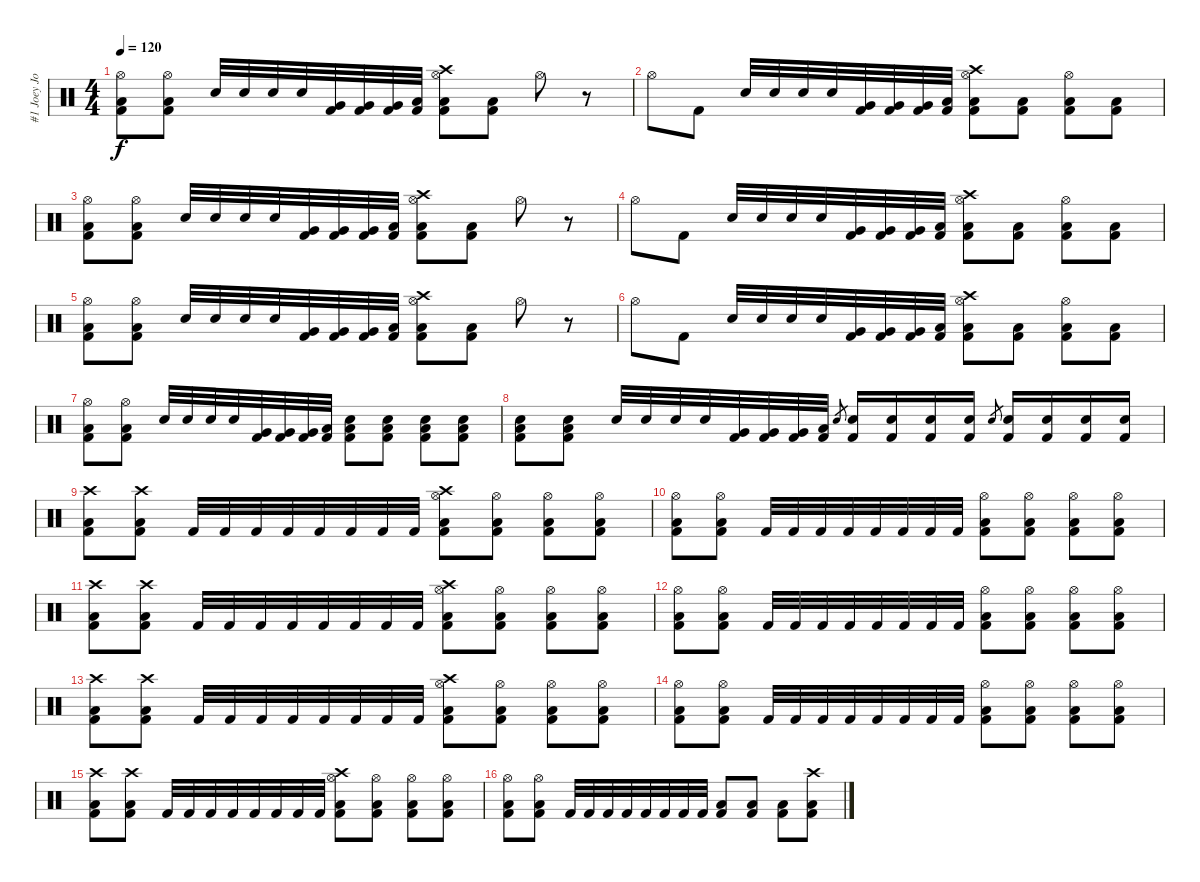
\track ("#1 Joey Jordison" "#1 Joey Jo") {instrument percussion}
\staff {score}
\articulation defaults
\ts (4 4)
\tempo 120
\clef neutral
\ks c
("Hi-Hat (open)" "Low Floor Tom (hit)" "Kick (hit) 2").8{dy f} ("Hi-Hat (open)" "Low Floor Tom (hit)" "Kick (hit) 2").8 "Electric Snare (hit)".32 "Electric Snare (hit)".32 "Electric Snare (hit)".32 "Electric Snare (hit)".32 ("Very Low Tom (hit)" "Kick (hit) 2").32 ("Very Low Tom (hit)" "Kick (hit) 2").32 ("Very Low Tom (hit)" "Kick (hit) 2").32 ("Low Floor Tom (hit)" "Kick (hit) 2").32 ("Crash high (hit)" "Hi-Hat (open)" "Low Floor Tom (hit)" "Kick (hit) 2").8 ("Low Floor Tom (hit)" "Kick (hit) 2").8 "Hi-Hat (open)".8 r.8 |
"Hi-Hat (open)".8 "Kick (hit) 2".8 "Electric Snare (hit)".32 "Electric Snare (hit)".32 "Electric Snare (hit)".32 "Electric Snare (hit)".32 ("Very Low Tom (hit)" "Kick (hit) 2").32 ("Very Low Tom (hit)" "Kick (hit) 2").32 ("Very Low Tom (hit)" "Kick (hit) 2").32 ("Low Floor Tom (hit)" "Kick (hit) 2").32 ("Hi-Hat (open)" "Crash high (hit)" "Low Floor Tom (hit)" "Kick (hit) 2").8 ("Low Floor Tom (hit)" "Kick (hit) 2").8 ("Hi-Hat (open)" "Low Floor Tom (hit)" "Kick (hit) 2").8 ("Low Floor Tom (hit)" "Kick (hit) 2").8 |
("Hi-Hat (open)" "Low Floor Tom (hit)" "Kick (hit) 2").8 ("Hi-Hat (open)" "Low Floor Tom (hit)" "Kick (hit) 2").8 "Electric Snare (hit)".32 "Electric Snare (hit)".32 "Electric Snare (hit)".32 "Electric Snare (hit)".32 ("Very Low Tom (hit)" "Kick (hit) 2").32 ("Very Low Tom (hit)" "Kick (hit) 2").32 ("Very Low Tom (hit)" "Kick (hit) 2").32 ("Low Floor Tom (hit)" "Kick (hit) 2").32 ("Hi-Hat (open)" "Crash high (hit)" "Low Floor Tom (hit)" "Kick (hit) 2").8 ("Low Floor Tom (hit)" "Kick (hit) 2").8 "Hi-Hat (open)".8 r.8 |
"Hi-Hat (open)".8 "Kick (hit) 2".8 "Electric Snare (hit)".32 "Electric Snare (hit)".32 "Electric Snare (hit)".32 "Electric Snare (hit)".32 ("Very Low Tom (hit)" "Kick (hit) 2").32 ("Very Low Tom (hit)" "Kick (hit) 2").32 ("Very Low Tom (hit)" "Kick (hit) 2").32 ("Low Floor Tom (hit)" "Kick (hit) 2").32 ("Hi-Hat (open)" "Crash high (hit)" "Low Floor Tom (hit)" "Kick (hit) 2").8 ("Low Floor Tom (hit)" "Kick (hit) 2").8 ("Hi-Hat (open)" "Low Floor Tom (hit)" "Kick (hit) 2").8 ("Low Floor Tom (hit)" "Kick (hit) 2").8 |
("Hi-Hat (open)" "Low Floor Tom (hit)" "Kick (hit) 2").8 ("Hi-Hat (open)" "Low Floor Tom (hit)" "Kick (hit) 2").8 "Electric Snare (hit)".32 "Electric Snare (hit)".32 "Electric Snare (hit)".32 "Electric Snare (hit)".32 ("Very Low Tom (hit)" "Kick (hit) 2").32 ("Very Low Tom (hit)" "Kick (hit) 2").32 ("Very Low Tom (hit)" "Kick (hit) 2").32 ("Low Floor Tom (hit)" "Kick (hit) 2").32 ("Hi-Hat (open)" "Crash high (hit)" "Low Floor Tom (hit)" "Kick (hit) 2").8 ("Low Floor Tom (hit)" "Kick (hit) 2").8 "Hi-Hat (open)".8 r.8 |
"Hi-Hat (open)".8 "Kick (hit) 2".8 "Electric Snare (hit)".32 "Electric Snare (hit)".32 "Electric Snare (hit)".32 "Electric Snare (hit)".32 ("Very Low Tom (hit)" "Kick (hit) 2").32 ("Very Low Tom (hit)" "Kick (hit) 2").32 ("Very Low Tom (hit)" "Kick (hit) 2").32 ("Low Floor Tom (hit)" "Kick (hit) 2").32 ("Hi-Hat (open)" "Crash high (hit)" "Low Floor Tom (hit)" "Kick (hit) 2").8 ("Low Floor Tom (hit)" "Kick (hit) 2").8 ("Hi-Hat (open)" "Low Floor Tom (hit)" "Kick (hit) 2").8 ("Low Floor Tom (hit)" "Kick (hit) 2").8 |
("Hi-Hat (open)" "Low Floor Tom (hit)" "Kick (hit) 2").8 ("Hi-Hat (open)" "Low Floor Tom (hit)" "Kick (hit) 2").8 "Electric Snare (hit)".32 "Electric Snare (hit)".32 "Electric Snare (hit)".32 "Electric Snare (hit)".32 ("Very Low Tom (hit)" "Kick (hit) 2").32 ("Very Low Tom (hit)" "Kick (hit) 2").32 ("Very Low Tom (hit)" "Kick (hit) 2").32 ("Low Floor Tom (hit)" "Kick (hit) 2").32 ("Low Floor Tom (hit)" "Electric Snare (hit)" "Kick (hit) 2").8 ("Low Floor Tom (hit)" "Electric Snare (hit)" "Kick (hit) 2").8 ("Low Floor Tom (hit)" "Electric Snare (hit)" "Kick (hit) 2").8 ("Low Floor Tom (hit)" "Electric Snare (hit)" "Kick (hit) 2").8 |
("Low Floor Tom (hit)" "Electric Snare (hit)" "Kick (hit) 2").8 ("Low Floor Tom (hit)" "Electric Snare (hit)" "Kick (hit) 2").8 "Electric Snare (hit)".32 "Electric Snare (hit)".32 "Electric Snare (hit)".32 "Electric Snare (hit)".32 ("Very Low Tom (hit)" "Kick (hit) 2").32 ("Very Low Tom (hit)" "Kick (hit) 2").32 ("Very Low Tom (hit)" "Kick (hit) 2").32 ("Low Floor Tom (hit)" "Kick (hit) 2").32 "Electric Snare (hit)".8{gr} ("Electric Snare (hit)" "Kick (hit) 2").16 ("Electric Snare (hit)" "Kick (hit) 2").16 ("Electric Snare (hit)" "Kick (hit) 2").16 ("Electric Snare (hit)" "Kick (hit) 2").16 "Electric Snare (hit)".8{gr} ("Electric Snare (hit)" "Kick (hit) 2").16 ("Electric Snare (hit)" "Kick (hit) 2").16 ("Electric Snare (hit)" "Kick (hit) 2").16 ("Electric Snare (hit)" "Kick (hit) 2").16 |
("Crash high (hit)" "Low Floor Tom (hit)" "Kick (hit) 2").8 ("Crash high (hit)" "Low Floor Tom (hit)" "Kick (hit) 2").8 "Kick (hit) 2".32 "Kick (hit) 2".32 "Kick (hit) 2".32 "Kick (hit) 2".32 "Kick (hit) 2".32 "Kick (hit) 2".32 "Kick (hit) 2".32 "Kick (hit) 2".32 ("Hi-Hat (open)" "Crash high (hit)" "Low Floor Tom (hit)" "Kick (hit) 2").8 ("Hi-Hat (open)" "Low Floor Tom (hit)" "Kick (hit) 2").8 ("Hi-Hat (open)" "Low Floor Tom (hit)" "Kick (hit) 2").8 ("Hi-Hat (open)" "Low Floor Tom (hit)" "Kick (hit) 2").8 |
("Hi-Hat (open)" "Low Floor Tom (hit)" "Kick (hit) 2").8 ("Hi-Hat (open)" "Low Floor Tom (hit)" "Kick (hit) 2").8 "Kick (hit) 2".32 "Kick (hit) 2".32 "Kick (hit) 2".32 "Kick (hit) 2".32 "Kick (hit) 2".32 "Kick (hit) 2".32 "Kick (hit) 2".32 "Kick (hit) 2".32 ("Hi-Hat (open)" "Low Floor Tom (hit)" "Kick (hit) 2").8 ("Hi-Hat (open)" "Low Floor Tom (hit)" "Kick (hit) 2").8 ("Hi-Hat (open)" "Low Floor Tom (hit)" "Kick (hit) 2").8 ("Hi-Hat (open)" "Low Floor Tom (hit)" "Kick (hit) 2").8 |
("Crash high (hit)" "Low Floor Tom (hit)" "Kick (hit) 2").8 ("Crash high (hit)" "Low Floor Tom (hit)" "Kick (hit) 2").8 "Kick (hit) 2".32 "Kick (hit) 2".32 "Kick (hit) 2".32 "Kick (hit) 2".32 "Kick (hit) 2".32 "Kick (hit) 2".32 "Kick (hit) 2".32 "Kick (hit) 2".32 ("Hi-Hat (open)" "Crash high (hit)" "Low Floor Tom (hit)" "Kick (hit) 2").8 ("Hi-Hat (open)" "Low Floor Tom (hit)" "Kick (hit) 2").8 ("Hi-Hat (open)" "Low Floor Tom (hit)" "Kick (hit) 2").8 ("Hi-Hat (open)" "Low Floor Tom (hit)" "Kick (hit) 2").8 |
("Hi-Hat (open)" "Low Floor Tom (hit)" "Kick (hit) 2").8 ("Hi-Hat (open)" "Low Floor Tom (hit)" "Kick (hit) 2").8 "Kick (hit) 2".32 "Kick (hit) 2".32 "Kick (hit) 2".32 "Kick (hit) 2".32 "Kick (hit) 2".32 "Kick (hit) 2".32 "Kick (hit) 2".32 "Kick (hit) 2".32 ("Hi-Hat (open)" "Low Floor Tom (hit)" "Kick (hit) 2").8 ("Hi-Hat (open)" "Low Floor Tom (hit)" "Kick (hit) 2").8 ("Hi-Hat (open)" "Low Floor Tom (hit)" "Kick (hit) 2").8 ("Hi-Hat (open)" "Low Floor Tom (hit)" "Kick (hit) 2").8 |
("Crash high (hit)" "Low Floor Tom (hit)" "Kick (hit) 2").8 ("Crash high (hit)" "Low Floor Tom (hit)" "Kick (hit) 2").8 "Kick (hit) 2".32 "Kick (hit) 2".32 "Kick (hit) 2".32 "Kick (hit) 2".32 "Kick (hit) 2".32 "Kick (hit) 2".32 "Kick (hit) 2".32 "Kick (hit) 2".32 ("Hi-Hat (open)" "Crash high (hit)" "Low Floor Tom (hit)" "Kick (hit) 2").8 ("Hi-Hat (open)" "Low Floor Tom (hit)" "Kick (hit) 2").8 ("Hi-Hat (open)" "Low Floor Tom (hit)" "Kick (hit) 2").8 ("Hi-Hat (open)" "Low Floor Tom (hit)" "Kick (hit) 2").8 |
("Hi-Hat (open)" "Low Floor Tom (hit)" "Kick (hit) 2").8 ("Hi-Hat (open)" "Low Floor Tom (hit)" "Kick (hit) 2").8 "Kick (hit) 2".32 "Kick (hit) 2".32 "Kick (hit) 2".32 "Kick (hit) 2".32 "Kick (hit) 2".32 "Kick (hit) 2".32 "Kick (hit) 2".32 "Kick (hit) 2".32 ("Hi-Hat (open)" "Low Floor Tom (hit)" "Kick (hit) 2").8 ("Hi-Hat (open)" "Low Floor Tom (hit)" "Kick (hit) 2").8 ("Hi-Hat (open)" "Low Floor Tom (hit)" "Kick (hit) 2").8 ("Hi-Hat (open)" "Low Floor Tom (hit)" "Kick (hit) 2").8 |
("Crash high (hit)" "Low Floor Tom (hit)" "Kick (hit) 2").8 ("Crash high (hit)" "Low Floor Tom (hit)" "Kick (hit) 2").8 "Kick (hit) 2".32 "Kick (hit) 2".32 "Kick (hit) 2".32 "Kick (hit) 2".32 "Kick (hit) 2".32 "Kick (hit) 2".32 "Kick (hit) 2".32 "Kick (hit) 2".32 ("Hi-Hat (open)" "Crash high (hit)" "Low Floor Tom (hit)" "Kick (hit) 2").8 ("Hi-Hat (open)" "Low Floor Tom (hit)" "Kick (hit) 2").8 ("Hi-Hat (open)" "Low Floor Tom (hit)" "Kick (hit) 2").8 ("Hi-Hat (open)" "Low Floor Tom (hit)" "Kick (hit) 2").8 |
("Hi-Hat (open)" "Low Floor Tom (hit)" "Kick (hit) 2").8 ("Hi-Hat (open)" "Low Floor Tom (hit)" "Kick (hit) 2").8 "Kick (hit) 2".32 "Kick (hit) 2".32 "Kick (hit) 2".32 "Kick (hit) 2".32 "Kick (hit) 2".32 "Kick (hit) 2".32 "Kick (hit) 2".32 "Kick (hit) 2".32 ("Low Floor Tom (hit)" "Kick (hit) 2").8 ("Low Floor Tom (hit)" "Kick (hit) 2").8 ("Low Floor Tom (hit)" "Kick (hit) 2").8 ("Crash high (hit)" "Low Floor Tom (hit)" "Kick (hit) 2").8
